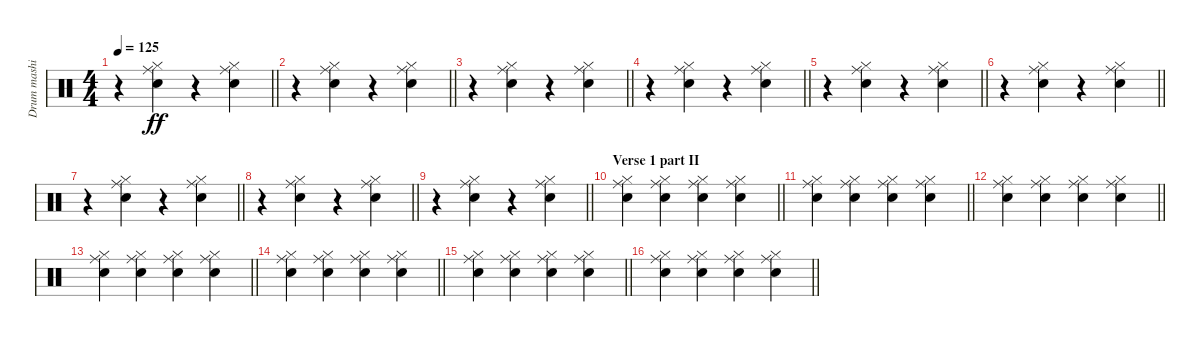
\track ("Drum mashine" "Drum mashi") {instrument percussion}
\staff
\articulation defaults
\ts (4 4)
\tempo 125
\clef neutral
\barLineRight lightlight
\ks c
r.4{dy ff} ("Ride (middle)" "Electric Snare (hit)" "Hi-Hat (closed)").4 r.4 ("Ride (middle)" "Electric Snare (hit)" "Hi-Hat (closed)").4 |
\barLineRight lightlight
r.4 ("Ride (middle)" "Electric Snare (hit)" "Hi-Hat (closed)").4 r.4 ("Ride (middle)" "Electric Snare (hit)" "Hi-Hat (closed)").4 |
\barLineRight lightlight
r.4 ("Ride (middle)" "Electric Snare (hit)" "Hi-Hat (closed)").4 r.4 ("Ride (middle)" "Electric Snare (hit)" "Hi-Hat (closed)").4 |
\barLineRight lightlight
r.4 ("Ride (middle)" "Electric Snare (hit)" "Hi-Hat (closed)").4 r.4 ("Ride (middle)" "Electric Snare (hit)" "Hi-Hat (closed)").4 |
\barLineRight lightlight
r.4 ("Ride (middle)" "Electric Snare (hit)" "Hi-Hat (closed)").4 r.4 ("Ride (middle)" "Electric Snare (hit)" "Hi-Hat (closed)").4 |
\barLineRight lightlight
r.4 ("Ride (middle)" "Electric Snare (hit)" "Hi-Hat (closed)").4 r.4 ("Ride (middle)" "Electric Snare (hit)" "Hi-Hat (closed)").4 |
\barLineRight lightlight
r.4 ("Ride (middle)" "Electric Snare (hit)" "Hi-Hat (closed)").4 r.4 ("Ride (middle)" "Electric Snare (hit)" "Hi-Hat (closed)").4 |
\barLineRight lightlight
r.4 ("Ride (middle)" "Electric Snare (hit)" "Hi-Hat (closed)").4 r.4 ("Ride (middle)" "Electric Snare (hit)" "Hi-Hat (closed)").4 |
\barLineRight lightlight
r.4 ("Ride (middle)" "Electric Snare (hit)" "Hi-Hat (closed)").4 r.4 ("Ride (middle)" "Electric Snare (hit)" "Hi-Hat (closed)").4 |
\section ("" "Verse 1 part II")
\barLineRight lightlight
("Ride (middle)" "Electric Snare (hit)" "Hi-Hat (closed)").4 ("Ride (middle)" "Electric Snare (hit)" "Hi-Hat (closed)").4 ("Ride (middle)" "Electric Snare (hit)" "Hi-Hat (closed)").4 ("Ride (middle)" "Electric Snare (hit)" "Hi-Hat (closed)").4 |
\barLineRight lightlight
("Ride (middle)" "Electric Snare (hit)" "Hi-Hat (closed)").4 ("Ride (middle)" "Electric Snare (hit)" "Hi-Hat (closed)").4 ("Ride (middle)" "Electric Snare (hit)" "Hi-Hat (closed)").4 ("Ride (middle)" "Electric Snare (hit)" "Hi-Hat (closed)").4 |
\barLineRight lightlight
("Ride (middle)" "Electric Snare (hit)" "Hi-Hat (closed)").4 ("Ride (middle)" "Electric Snare (hit)" "Hi-Hat (closed)").4 ("Ride (middle)" "Electric Snare (hit)" "Hi-Hat (closed)").4 ("Ride (middle)" "Electric Snare (hit)" "Hi-Hat (closed)").4 |
\barLineRight lightlight
("Ride (middle)" "Electric Snare (hit)" "Hi-Hat (closed)").4 ("Ride (middle)" "Electric Snare (hit)" "Hi-Hat (closed)").4 ("Ride (middle)" "Electric Snare (hit)" "Hi-Hat (closed)").4 ("Ride (middle)" "Electric Snare (hit)" "Hi-Hat (closed)").4 |
\barLineRight lightlight
("Ride (middle)" "Electric Snare (hit)" "Hi-Hat (closed)").4 ("Ride (middle)" "Electric Snare (hit)" "Hi-Hat (closed)").4 ("Ride (middle)" "Electric Snare (hit)" "Hi-Hat (closed)").4 ("Ride (middle)" "Electric Snare (hit)" "Hi-Hat (closed)").4 |
\barLineRight lightlight
("Ride (middle)" "Electric Snare (hit)" "Hi-Hat (closed)").4 ("Ride (middle)" "Electric Snare (hit)" "Hi-Hat (closed)").4 ("Ride (middle)" "Electric Snare (hit)" "Hi-Hat (closed)").4 ("Ride (middle)" "Electric Snare (hit)" "Hi-Hat (closed)").4 |
\barLineRight lightlight
("Ride (middle)" "Electric Snare (hit)" "Hi-Hat (closed)").4 ("Ride (middle)" "Electric Snare (hit)" "Hi-Hat (closed)").4 ("Ride (middle)" "Electric Snare (hit)" "Hi-Hat (closed)").4 ("Ride (middle)" "Electric Snare (hit)" "Hi-Hat (closed)").4
